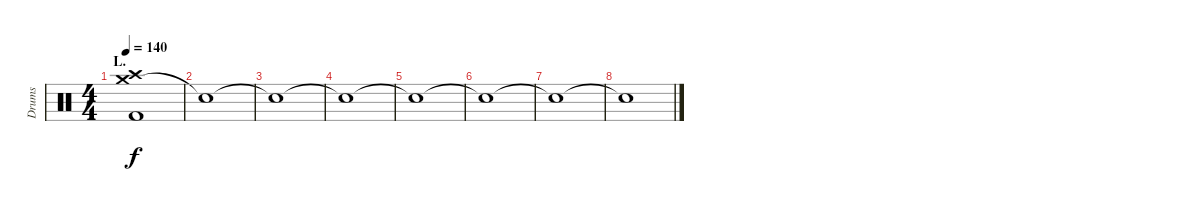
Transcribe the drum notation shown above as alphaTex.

\track ("Drums" "Drums") {instrument percussion}
\staff {score}
\articulation defaults
\ts (4 4)
\section ("" "L.")
\tempo 140
\clef neutral
\ks c
("Crash medium (hit)" "Crash high (hit)" "Kick (hit) 2").1{dy f} |
"Snare (hit)"{t}.1 |
"Snare (hit)"{t}.1 |
"Snare (hit)"{t}.1 |
"Snare (hit)"{t}.1 |
"Snare (hit)"{t}.1 |
"Snare (hit)"{t}.1 |
"Snare (hit)"{t}.1
